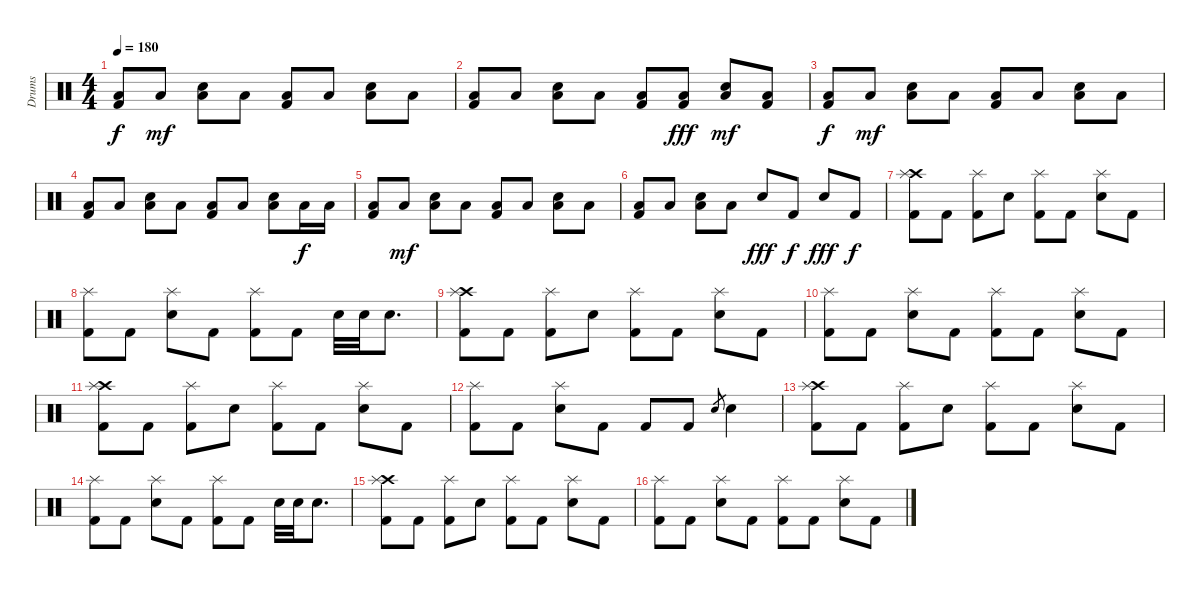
\track ("Drums" "Drums") {instrument percussion}
\staff {score}
\articulation defaults
\ts (4 4)
\tempo 180
\clef neutral
\ks c
("Low Floor Tom (hit)" "Kick (hit) 2").8{dy f} "Low Floor Tom (hit)".8{dy mf} ("Low Floor Tom (hit)" "Electric Snare (hit)").8 "Low Floor Tom (hit)".8 ("Low Floor Tom (hit)" "Kick (hit) 2").8 "Low Floor Tom (hit)".8 ("Low Floor Tom (hit)" "Electric Snare (hit)").8 "Low Floor Tom (hit)".8 |
("Low Floor Tom (hit)" "Kick (hit) 2").8 "Low Floor Tom (hit)".8 ("Low Floor Tom (hit)" "Electric Snare (hit)").8 "Low Floor Tom (hit)".8 ("Low Floor Tom (hit)" "Kick (hit) 2").8 ("Low Tom (hit)" "Kick (hit) 2").8{dy fff} ("Low Floor Tom (hit)" "Electric Snare (hit)").8{dy mf} ("Low Floor Tom (hit)" "Kick (hit) 2").8 |
("Low Floor Tom (hit)" "Kick (hit) 2").8{dy f} "Low Floor Tom (hit)".8{dy mf} ("Low Floor Tom (hit)" "Electric Snare (hit)").8 "Low Floor Tom (hit)".8 ("Low Floor Tom (hit)" "Kick (hit) 2").8 "Low Floor Tom (hit)".8 ("Low Floor Tom (hit)" "Electric Snare (hit)").8 "Low Floor Tom (hit)".8 |
("Low Floor Tom (hit)" "Kick (hit) 2").8 "Low Floor Tom (hit)".8 ("Low Floor Tom (hit)" "Electric Snare (hit)").8 "Low Floor Tom (hit)".8 ("Low Floor Tom (hit)" "Kick (hit) 2").8 "Low Floor Tom (hit)".8 ("Low Floor Tom (hit)" "Electric Snare (hit)").8 "Low Tom (hit)".16{dy f} "Low Tom (hit)".16 |
("Low Floor Tom (hit)" "Kick (hit) 2").8 "Low Floor Tom (hit)".8{dy mf} ("Low Floor Tom (hit)" "Electric Snare (hit)").8 "Low Floor Tom (hit)".8 ("Low Floor Tom (hit)" "Kick (hit) 2").8 "Low Floor Tom (hit)".8 ("Low Floor Tom (hit)" "Electric Snare (hit)").8 "Low Floor Tom (hit)".8 |
("Low Floor Tom (hit)" "Kick (hit) 2").8 "Low Floor Tom (hit)".8 ("Low Floor Tom (hit)" "Electric Snare (hit)").8 "Low Floor Tom (hit)".8 "Electric Snare (hit)".8{dy fff} "Kick (hit) 2".8{dy f} "Electric Snare (hit)".8{dy fff} "Kick (hit) 2".8{dy f} |
("Crash high (hit)" "Splash (hit)" "Kick (hit) 2").8 "Kick (hit) 2".8 ("Splash (hit)" "Kick (hit) 2").8 "Electric Snare (hit)".8 ("Splash (hit)" "Kick (hit) 2").8 "Kick (hit) 2".8 ("Splash (hit)" "Electric Snare (hit)").8 "Kick (hit) 2".8 |
("Splash (hit)" "Kick (hit) 2").8 "Kick (hit) 2".8 ("Splash (hit)" "Electric Snare (hit)").8 "Kick (hit) 2".8 ("Splash (hit)" "Kick (hit) 2").8 "Kick (hit) 2".8 "Electric Snare (hit)".32 "Electric Snare (hit)".32 "Electric Snare (hit)".8{d} |
("Crash high (hit)" "Splash (hit)" "Kick (hit) 2").8 "Kick (hit) 2".8 ("Splash (hit)" "Kick (hit) 2").8 "Electric Snare (hit)".8 ("Splash (hit)" "Kick (hit) 2").8 "Kick (hit) 2".8 ("Splash (hit)" "Electric Snare (hit)").8 "Kick (hit) 2".8 |
("Splash (hit)" "Kick (hit) 2").8 "Kick (hit) 2".8 ("Splash (hit)" "Electric Snare (hit)").8 "Kick (hit) 2".8 ("Splash (hit)" "Kick (hit) 2").8 "Kick (hit) 2".8 ("Splash (hit)" "Electric Snare (hit)").8 "Kick (hit) 2".8 |
("Crash high (hit)" "Splash (hit)" "Kick (hit) 2").8 "Kick (hit) 2".8 ("Splash (hit)" "Kick (hit) 2").8 "Electric Snare (hit)".8 ("Splash (hit)" "Kick (hit) 2").8 "Kick (hit) 2".8 ("Splash (hit)" "Electric Snare (hit)").8 "Kick (hit) 2".8 |
("Splash (hit)" "Kick (hit) 2").8 "Kick (hit) 2".8 ("Splash (hit)" "Electric Snare (hit)").8 "Kick (hit) 2".8 "Kick (hit) 2".8 "Kick (hit) 2".8 "Electric Snare (hit)"{sl}.8{gr} "Electric Snare (hit)".4 |
("Crash high (hit)" "Splash (hit)" "Kick (hit) 2").8 "Kick (hit) 2".8 ("Splash (hit)" "Kick (hit) 2").8 "Electric Snare (hit)".8 ("Splash (hit)" "Kick (hit) 2").8 "Kick (hit) 2".8 ("Splash (hit)" "Electric Snare (hit)").8 "Kick (hit) 2".8 |
("Splash (hit)" "Kick (hit) 2").8 "Kick (hit) 2".8 ("Splash (hit)" "Electric Snare (hit)").8 "Kick (hit) 2".8 ("Splash (hit)" "Kick (hit) 2").8 "Kick (hit) 2".8 "Electric Snare (hit)".32 "Electric Snare (hit)".32 "Electric Snare (hit)".8{d} |
("Crash high (hit)" "Splash (hit)" "Kick (hit) 2").8 "Kick (hit) 2".8 ("Splash (hit)" "Kick (hit) 2").8 "Electric Snare (hit)".8 ("Splash (hit)" "Kick (hit) 2").8 "Kick (hit) 2".8 ("Splash (hit)" "Electric Snare (hit)").8 "Kick (hit) 2".8 |
("Splash (hit)" "Kick (hit) 2").8 "Kick (hit) 2".8 ("Splash (hit)" "Electric Snare (hit)").8 "Kick (hit) 2".8 ("Splash (hit)" "Kick (hit) 2").8 "Kick (hit) 2".8 ("Splash (hit)" "Electric Snare (hit)").8 "Kick (hit) 2".8
